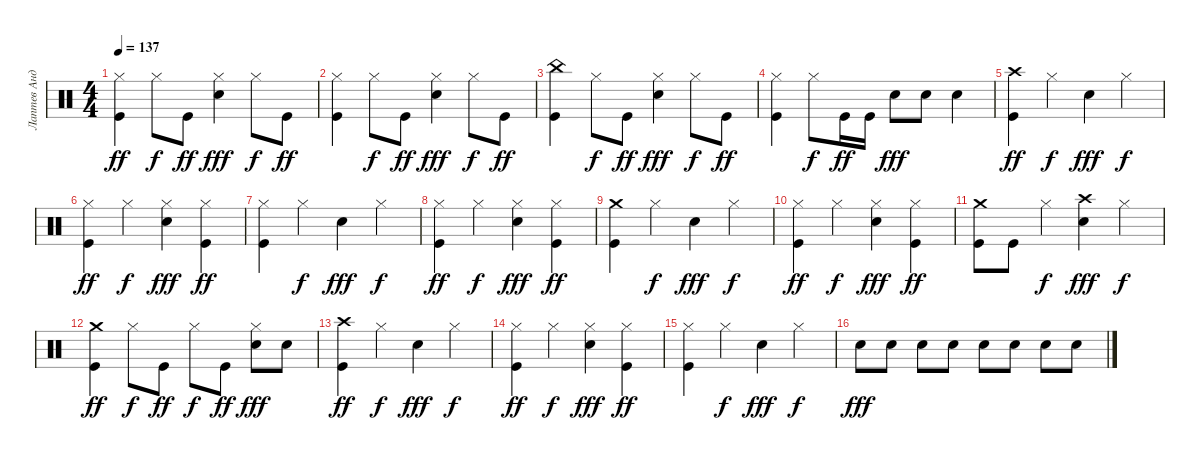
\track ("Лаптев Андрей" "Лаптев Анд") {instrument percussion}
\staff {score}
\articulation defaults
\ts (4 4)
\tempo 137
\clef neutral
\ks c
("Kick (hit)" "Hi-Hat (closed)").4{dy ff} "Hi-Hat (closed)".8{dy f} "Kick (hit)".8{dy ff} ("Snare (hit) 2" "Hi-Hat (closed)").4{dy fff} "Hi-Hat (closed)".8{dy f} "Kick (hit)".8{dy ff} |
("Kick (hit)" "Hi-Hat (closed)").4 "Hi-Hat (closed)".8{dy f} "Kick (hit)".8{dy ff} ("Snare (hit) 2" "Hi-Hat (closed)").4{dy fff} "Hi-Hat (closed)".8{dy f} "Kick (hit)".8{dy ff} |
("China (hit)" "Kick (hit)").4 "Hi-Hat (closed)".8{dy f} "Kick (hit)".8{dy ff} ("Snare (hit) 2" "Hi-Hat (closed)").4{dy fff} "Hi-Hat (closed)".8{dy f} "Kick (hit)".8{dy ff} |
("Kick (hit)" "Hi-Hat (closed)").4 "Hi-Hat (closed)".8{dy f} "Kick (hit)".16{dy ff} "Kick (hit)".16 "Snare (hit) 2".8{dy fff} "Snare (hit) 2".8 "Snare (hit) 2".4 |
("Kick (hit)" "Crash high (hit)").4{dy ff} "Hi-Hat (closed)".4{dy f} "Snare (hit) 2".4{dy fff} "Hi-Hat (closed)".4{dy f} |
("Kick (hit)" "Hi-Hat (closed)").4{dy ff} "Hi-Hat (closed)".4{dy f} ("Snare (hit) 2" "Hi-Hat (closed)").4{dy fff} ("Kick (hit)" "Hi-Hat (closed)").4{dy ff} |
("Hi-Hat (closed)" "Kick (hit)").4 "Hi-Hat (closed)".4{dy f} "Snare (hit) 2".4{dy fff} "Hi-Hat (closed)".4{dy f} |
("Kick (hit)" "Hi-Hat (closed)").4{dy ff} "Hi-Hat (closed)".4{dy f} ("Snare (hit) 2" "Hi-Hat (closed)").4{dy fff} ("Kick (hit)" "Hi-Hat (closed)").4{dy ff} |
("Crash medium (hit)" "Kick (hit)").4 "Hi-Hat (closed)".4{dy f} "Snare (hit) 2".4{dy fff} "Hi-Hat (closed)".4{dy f} |
("Kick (hit)" "Hi-Hat (closed)").4{dy ff} "Hi-Hat (closed)".4{dy f} ("Snare (hit) 2" "Hi-Hat (closed)").4{dy fff} ("Kick (hit)" "Hi-Hat (closed)").4{dy ff} |
("Kick (hit)" "Crash medium (hit)").8 "Kick (hit)".8 "Hi-Hat (closed)".4{dy f} ("Snare (hit) 2" "Crash high (hit)").4{dy fff} "Hi-Hat (closed)".4{dy f} |
("Crash medium (hit)" "Kick (hit)").4{dy ff} "Hi-Hat (closed)".8{dy f} "Kick (hit)".8{dy ff} "Hi-Hat (closed)".8{dy f} "Kick (hit)".8{dy ff} ("Snare (hit) 2" "Hi-Hat (closed)").8{dy fff} "Snare (hit) 2".8 |
("Kick (hit)" "Crash high (hit)").4{dy ff} "Hi-Hat (closed)".4{dy f} "Snare (hit) 2".4{dy fff} "Hi-Hat (closed)".4{dy f} |
("Kick (hit)" "Hi-Hat (closed)").4{dy ff} "Hi-Hat (closed)".4{dy f} ("Snare (hit) 2" "Hi-Hat (closed)").4{dy fff} ("Kick (hit)" "Hi-Hat (closed)").4{dy ff} |
("Kick (hit)" "Hi-Hat (closed)").4 "Hi-Hat (closed)".4{dy f} "Snare (hit) 2".4{dy fff} "Hi-Hat (closed)".4{dy f} |
"Snare (hit) 2".8{dy fff} "Snare (hit) 2".8 "Snare (hit) 2".8 "Snare (hit) 2".8 "Snare (hit) 2".8 "Snare (hit) 2".8 "Snare (hit) 2".8 "Snare (hit) 2".8
